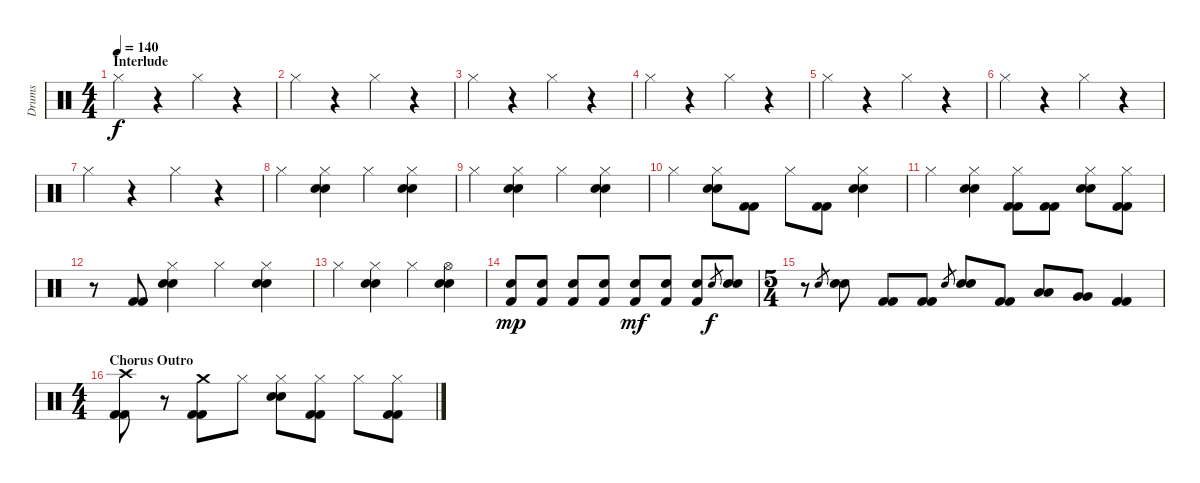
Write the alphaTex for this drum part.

\track ("Drums" "Drums") {instrument percussion}
\staff {score}
\articulation defaults
\ts (4 4)
\section ("" "Interlude")
\tempo 140
\clef neutral
\ks c "Hi-Hat (closed)".4{dy f}
r.4 "Hi-Hat (closed)".4 r.4 |
"Hi-Hat (closed)".4 r.4 "Hi-Hat (closed)".4 r.4 |
"Hi-Hat (closed)".4 r.4 "Hi-Hat (closed)".4 r.4 |
"Hi-Hat (closed)".4 r.4 "Hi-Hat (closed)".4 r.4 |
"Hi-Hat (closed)".4 r.4 "Hi-Hat (closed)".4 r.4 |
"Hi-Hat (closed)".4 r.4 "Hi-Hat (closed)".4 r.4 |
"Hi-Hat (closed)".4 r.4 "Hi-Hat (closed)".4 r.4 |
"Hi-Hat (closed)".4 ("Hi-Hat (closed)" "Snare (hit) 2" "Snare (hit) 2").4 "Hi-Hat (closed)".4 ("Hi-Hat (closed)" "Snare (hit) 2" "Snare (hit) 2").4 |
"Hi-Hat (closed)".4 ("Hi-Hat (closed)" "Snare (hit) 2" "Snare (hit) 2").4 "Hi-Hat (closed)".4 ("Hi-Hat (closed)" "Snare (hit) 2" "Snare (hit) 2").4 |
"Hi-Hat (closed)".4 ("Hi-Hat (closed)" "Snare (hit) 2" "Snare (hit) 2").8 ("Kick (hit) 2" "Kick (hit) 2").8 "Hi-Hat (closed)".8 ("Kick (hit) 2" "Kick (hit) 2").8 ("Hi-Hat (closed)" "Snare (hit) 2" "Snare (hit) 2").4 |
"Hi-Hat (closed)".4 ("Hi-Hat (closed)" "Snare (hit) 2" "Snare (hit) 2").4 ("Hi-Hat (closed)" "Kick (hit) 2" "Kick (hit) 2").8 ("Kick (hit) 2" "Kick (hit) 2").8 ("Hi-Hat (closed)" "Snare (hit) 2" "Snare (hit) 2").8 ("Hi-Hat (closed)" "Kick (hit) 2" "Kick (hit) 2").8 |
r.8 ("Kick (hit) 2" "Kick (hit) 2").8 ("Hi-Hat (closed)" "Snare (hit) 2" "Snare (hit) 2").4 "Hi-Hat (closed)".4 ("Hi-Hat (closed)" "Snare (hit) 2" "Snare (hit) 2").4 |
"Hi-Hat (closed)".4 ("Hi-Hat (closed)" "Snare (hit) 2" "Snare (hit) 2").4 "Hi-Hat (closed)".4 ("Hi-Hat (open)" "Snare (hit) 2" "Snare (hit) 2").4 |
("Snare (hit) 2" "Kick (hit) 2").8{dy mp} ("Snare (hit) 2" "Kick (hit) 2").8 ("Snare (hit) 2" "Kick (hit) 2").8 ("Snare (hit) 2" "Kick (hit) 2").8 ("Snare (hit) 2" "Kick (hit) 2").8{dy mf} ("Snare (hit) 2" "Kick (hit) 2").8 ("Snare (hit) 2" "Kick (hit) 2").8 "Snare (hit) 2".8{gr dy f} ("Snare (hit) 2" "Snare (hit) 2").8 |
\ts (5 4)
r.8 "Snare (hit) 2".8{gr} ("Snare (hit) 2" "Snare (hit) 2").8 ("Kick (hit) 2" "Kick (hit) 2").8 ("Kick (hit) 2" "Kick (hit) 2").8 "Snare (hit) 2".8{gr} ("Snare (hit) 2" "Snare (hit) 2").8 ("Kick (hit) 2" "Kick (hit) 2").8 ("Low Tom (hit)" "Low Tom (hit)").8 ("Very Low Tom (hit)" "Very Low Tom (hit)").8 ("Kick (hit) 2" "Kick (hit) 2").4 |
\ts (4 4)
\section ("" "Chorus Outro")
("Crash high (hit)" "Kick (hit) 2" "Kick (hit) 2").8 r.8 ("Crash medium (hit)" "Kick (hit) 2" "Kick (hit) 2").8 "Hi-Hat (closed)".8 ("Hi-Hat (closed)" "Snare (hit) 2" "Snare (hit) 2").8 ("Hi-Hat (closed)" "Kick (hit) 2" "Kick (hit) 2").8 "Hi-Hat (closed)".8 ("Hi-Hat (closed)" "Kick (hit) 2" "Kick (hit) 2").8
